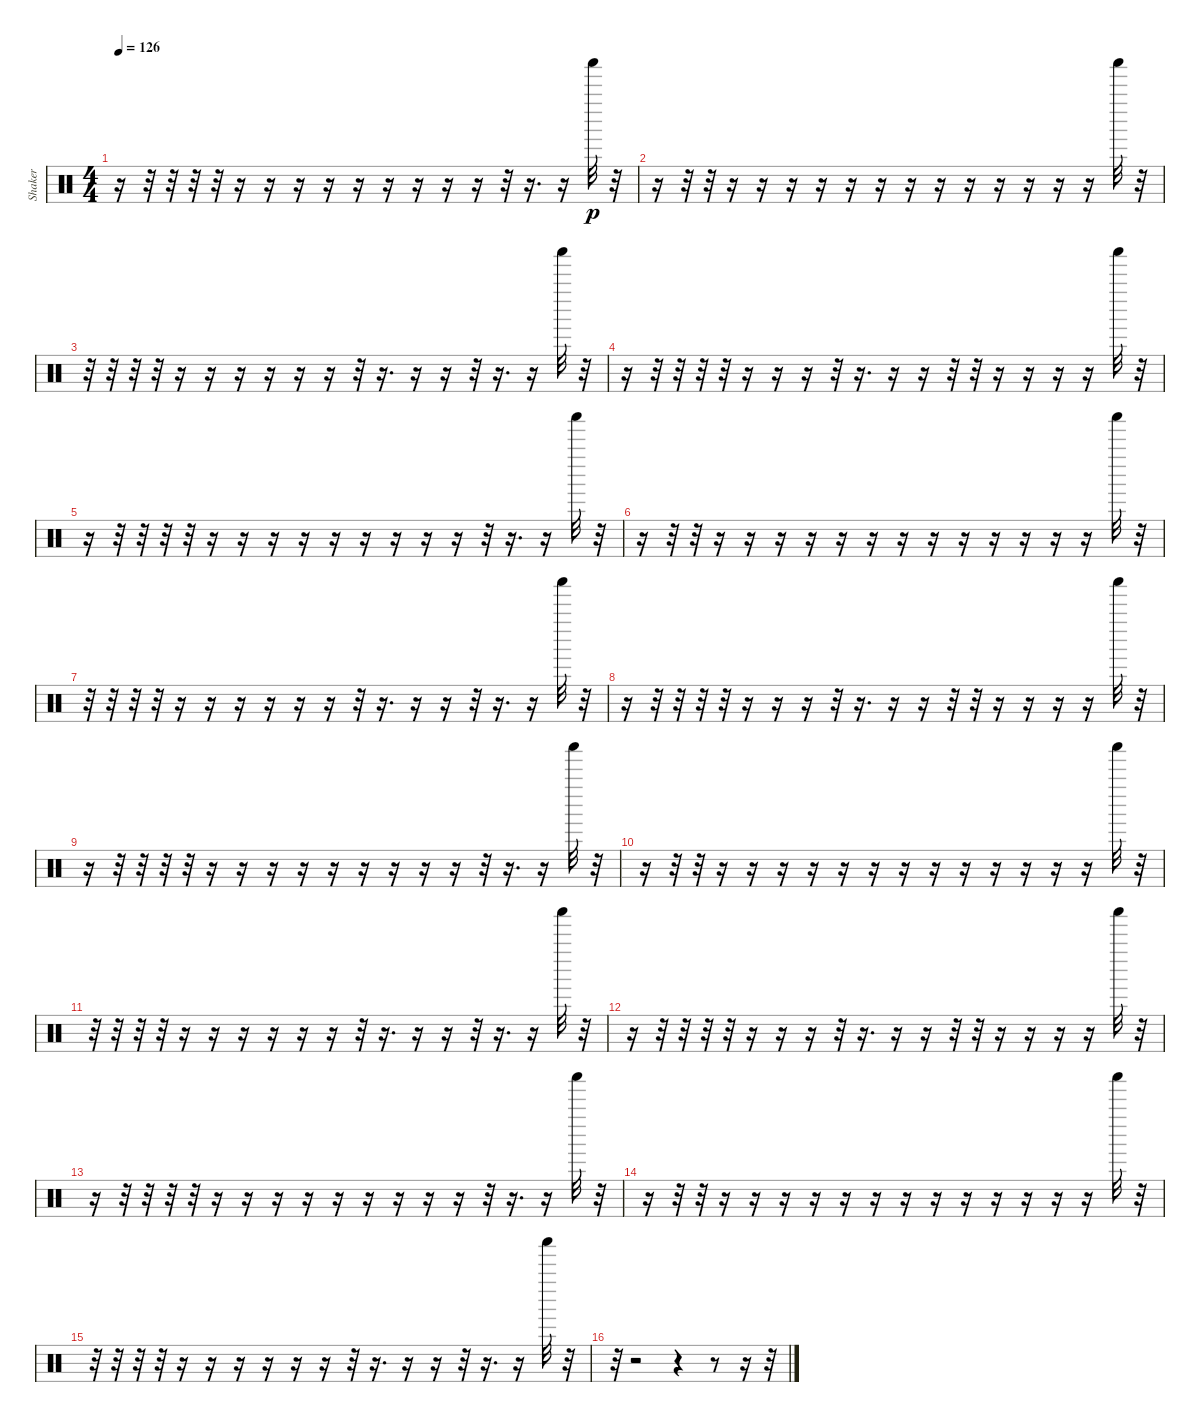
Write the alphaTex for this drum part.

\track ("Shaker" "Shaker") {instrument percussion}
\staff {score}
\articulation defaults
\ts (4 4)
\tempo 126
\clef neutral
\ks c
r.16{dy p} r.32 r.32 r.32 r.32 r.16 r.16 r.16 r.16 r.16 r.16 r.16 r.16 r.16 r.32 r.16{d} r.16 "Shaker (hit)".32 r.32 |
r.16 r.32 r.32 r.16 r.16 r.16 r.16 r.16 r.16 r.16 r.16 r.16 r.16 r.16 r.16 r.16 "Shaker (hit)".32 r.32 |
r.32 r.32 r.32 r.32 r.16 r.16 r.16 r.16 r.16 r.16 r.32 r.16{d} r.16 r.16 r.32 r.16{d} r.16 "Shaker (hit)".32 r.32 |
r.16 r.32 r.32 r.32 r.32 r.16 r.16 r.16 r.32 r.16{d} r.16 r.16 r.32 r.32 r.16 r.16 r.16 r.16 "Shaker (hit)".32 r.32 |
r.16 r.32 r.32 r.32 r.32 r.16 r.16 r.16 r.16 r.16 r.16 r.16 r.16 r.16 r.32 r.16{d} r.16 "Shaker (hit)".32 r.32 |
r.16 r.32 r.32 r.16 r.16 r.16 r.16 r.16 r.16 r.16 r.16 r.16 r.16 r.16 r.16 r.16 "Shaker (hit)".32 r.32 |
r.32 r.32 r.32 r.32 r.16 r.16 r.16 r.16 r.16 r.16 r.32 r.16{d} r.16 r.16 r.32 r.16{d} r.16 "Shaker (hit)".32 r.32 |
r.16 r.32 r.32 r.32 r.32 r.16 r.16 r.16 r.32 r.16{d} r.16 r.16 r.32 r.32 r.16 r.16 r.16 r.16 "Shaker (hit)".32 r.32 |
r.16 r.32 r.32 r.32 r.32 r.16 r.16 r.16 r.16 r.16 r.16 r.16 r.16 r.16 r.32 r.16{d} r.16 "Shaker (hit)".32 r.32 |
r.16 r.32 r.32 r.16 r.16 r.16 r.16 r.16 r.16 r.16 r.16 r.16 r.16 r.16 r.16 r.16 "Shaker (hit)".32 r.32 |
r.32 r.32 r.32 r.32 r.16 r.16 r.16 r.16 r.16 r.16 r.32 r.16{d} r.16 r.16 r.32 r.16{d} r.16 "Shaker (hit)".32 r.32 |
r.16 r.32 r.32 r.32 r.32 r.16 r.16 r.16 r.32 r.16{d} r.16 r.16 r.32 r.32 r.16 r.16 r.16 r.16 "Shaker (hit)".32 r.32 |
r.16 r.32 r.32 r.32 r.32 r.16 r.16 r.16 r.16 r.16 r.16 r.16 r.16 r.16 r.32 r.16{d} r.16 "Shaker (hit)".32 r.32 |
r.16 r.32 r.32 r.16 r.16 r.16 r.16 r.16 r.16 r.16 r.16 r.16 r.16 r.16 r.16 r.16 "Shaker (hit)".32 r.32 |
r.32 r.32 r.32 r.32 r.16 r.16 r.16 r.16 r.16 r.16 r.32 r.16{d} r.16 r.16 r.32 r.16{d} r.16 "Shaker (hit)".32 r.32 |
r.32 r.2 r.4 r.8 r.16 r.32
